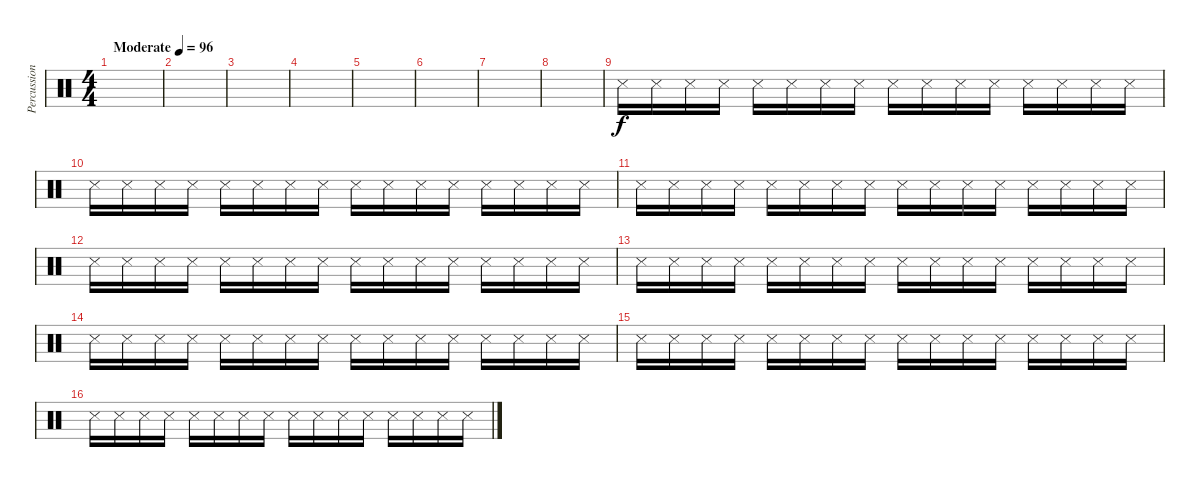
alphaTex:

\track ("Percussion 3 diff" "Percussion") {instrument percussion}
\staff {score}
\articulation defaults
\ts (4 4)
\tempo (96 "Moderate")
\clef neutral
\ks c
|
|
|
|
|
|
|
|
"Snare (side stick) 3".16 "Snare (side stick) 3".16 "Snare (side stick) 3".16 "Snare (side stick) 3".16 "Snare (side stick) 3".16 "Snare (side stick) 3".16 "Snare (side stick) 3".16 "Snare (side stick) 3".16 "Snare (side stick) 3".16 "Snare (side stick) 3".16 "Snare (side stick) 3".16 "Snare (side stick) 3".16 "Snare (side stick) 3".16 "Snare (side stick) 3".16 "Snare (side stick) 3".16 "Snare (side stick) 3".16 |
"Snare (side stick) 3".16 "Snare (side stick) 3".16 "Snare (side stick) 3".16 "Snare (side stick) 3".16 "Snare (side stick) 3".16 "Snare (side stick) 3".16 "Snare (side stick) 3".16 "Snare (side stick) 3".16 "Snare (side stick) 3".16 "Snare (side stick) 3".16 "Snare (side stick) 3".16 "Snare (side stick) 3".16 "Snare (side stick) 3".16 "Snare (side stick) 3".16 "Snare (side stick) 3".16 "Snare (side stick) 3".16 |
"Snare (side stick) 3".16 "Snare (side stick) 3".16 "Snare (side stick) 3".16 "Snare (side stick) 3".16 "Snare (side stick) 3".16 "Snare (side stick) 3".16 "Snare (side stick) 3".16 "Snare (side stick) 3".16 "Snare (side stick) 3".16 "Snare (side stick) 3".16 "Snare (side stick) 3".16 "Snare (side stick) 3".16 "Snare (side stick) 3".16 "Snare (side stick) 3".16 "Snare (side stick) 3".16 "Snare (side stick) 3".16 |
"Snare (side stick) 3".16 "Snare (side stick) 3".16 "Snare (side stick) 3".16 "Snare (side stick) 3".16 "Snare (side stick) 3".16 "Snare (side stick) 3".16 "Snare (side stick) 3".16 "Snare (side stick) 3".16 "Snare (side stick) 3".16 "Snare (side stick) 3".16 "Snare (side stick) 3".16 "Snare (side stick) 3".16 "Snare (side stick) 3".16 "Snare (side stick) 3".16 "Snare (side stick) 3".16 "Snare (side stick) 3".16 |
"Snare (side stick) 3".16 "Snare (side stick) 3".16 "Snare (side stick) 3".16 "Snare (side stick) 3".16 "Snare (side stick) 3".16 "Snare (side stick) 3".16 "Snare (side stick) 3".16 "Snare (side stick) 3".16 "Snare (side stick) 3".16 "Snare (side stick) 3".16 "Snare (side stick) 3".16 "Snare (side stick) 3".16 "Snare (side stick) 3".16 "Snare (side stick) 3".16 "Snare (side stick) 3".16 "Snare (side stick) 3".16 |
"Snare (side stick) 3".16 "Snare (side stick) 3".16 "Snare (side stick) 3".16 "Snare (side stick) 3".16 "Snare (side stick) 3".16 "Snare (side stick) 3".16 "Snare (side stick) 3".16 "Snare (side stick) 3".16 "Snare (side stick) 3".16 "Snare (side stick) 3".16 "Snare (side stick) 3".16 "Snare (side stick) 3".16 "Snare (side stick) 3".16 "Snare (side stick) 3".16 "Snare (side stick) 3".16 "Snare (side stick) 3".16 |
"Snare (side stick) 3".16 "Snare (side stick) 3".16 "Snare (side stick) 3".16 "Snare (side stick) 3".16 "Snare (side stick) 3".16 "Snare (side stick) 3".16 "Snare (side stick) 3".16 "Snare (side stick) 3".16 "Snare (side stick) 3".16 "Snare (side stick) 3".16 "Snare (side stick) 3".16 "Snare (side stick) 3".16 "Snare (side stick) 3".16 "Snare (side stick) 3".16 "Snare (side stick) 3".16 "Snare (side stick) 3".16 |
"Snare (side stick) 3".16 "Snare (side stick) 3".16 "Snare (side stick) 3".16 "Snare (side stick) 3".16 "Snare (side stick) 3".16 "Snare (side stick) 3".16 "Snare (side stick) 3".16 "Snare (side stick) 3".16 "Snare (side stick) 3".16 "Snare (side stick) 3".16 "Snare (side stick) 3".16 "Snare (side stick) 3".16 "Snare (side stick) 3".16 "Snare (side stick) 3".16 "Snare (side stick) 3".16 "Snare (side stick) 3".16
